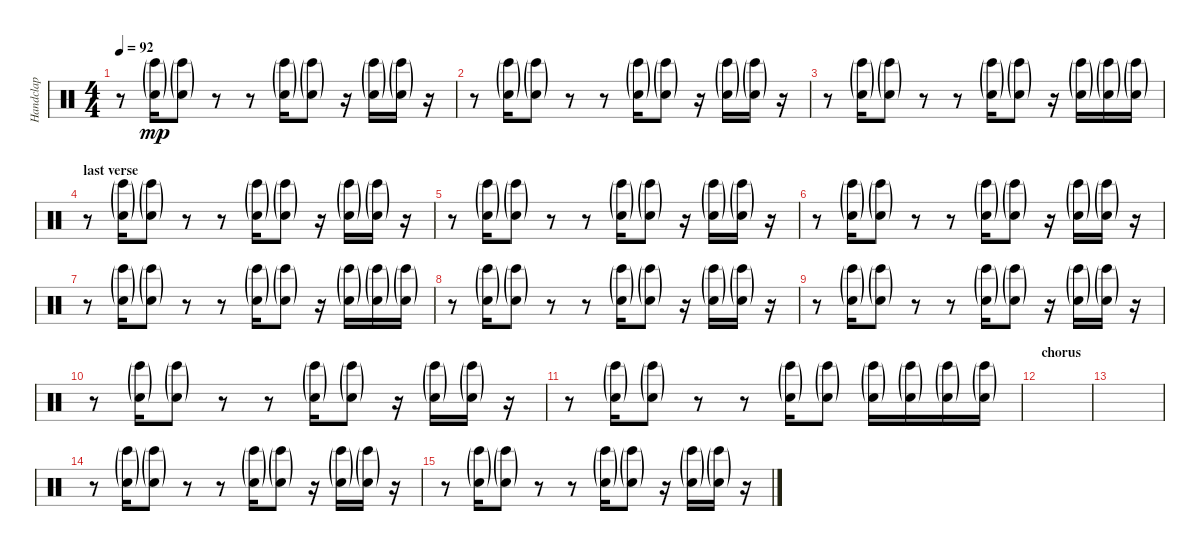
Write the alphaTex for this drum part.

\track ("Handclap" "Handclap") {instrument percussion}
\staff {score}
\articulation defaults
\ts (4 4)
\tempo 92
\clef neutral
\ks c
r.8{dy mp} ("Hand Clap (hit)"{g} "Bongo High (hit)"{g}).16 ("Hand Clap (hit)"{g} "Bongo High (hit)"{g}).8 r.8 r.8 ("Hand Clap (hit)"{g} "Bongo High (hit)"{g}).16 ("Hand Clap (hit)"{g} "Bongo High (hit)"{g}).8 r.16 ("Hand Clap (hit)"{g} "Bongo High (hit)"{g}).16 ("Hand Clap (hit)"{g} "Bongo High (hit)"{g}).16 r.16 |
r.8 ("Hand Clap (hit)"{g} "Bongo High (hit)"{g}).16 ("Hand Clap (hit)"{g} "Bongo High (hit)"{g}).8 r.8 r.8 ("Hand Clap (hit)"{g} "Bongo High (hit)"{g}).16 ("Hand Clap (hit)"{g} "Bongo High (hit)"{g}).8 r.16 ("Hand Clap (hit)"{g} "Bongo High (hit)"{g}).16 ("Hand Clap (hit)"{g} "Bongo High (hit)"{g}).16 r.16 |
r.8 ("Hand Clap (hit)"{g} "Bongo High (hit)"{g}).16 ("Hand Clap (hit)"{g} "Bongo High (hit)"{g}).8 r.8 r.8 ("Hand Clap (hit)"{g} "Bongo High (hit)"{g}).16 ("Hand Clap (hit)"{g} "Bongo High (hit)"{g}).8 r.16 ("Hand Clap (hit)"{g} "Bongo High (hit)"{g}).16 ("Hand Clap (hit)"{g} "Bongo High (hit)"{g}).16 ("Hand Clap (hit)"{g} "Bongo High (hit)"{g}).16 |
\section ("" "last verse")
r.8 ("Hand Clap (hit)"{g} "Bongo High (hit)"{g}).16 ("Hand Clap (hit)"{g} "Bongo High (hit)"{g}).8 r.8 r.8 ("Hand Clap (hit)"{g} "Bongo High (hit)"{g}).16 ("Hand Clap (hit)"{g} "Bongo High (hit)"{g}).8 r.16 ("Hand Clap (hit)"{g} "Bongo High (hit)"{g}).16 ("Hand Clap (hit)"{g} "Bongo High (hit)"{g}).16 r.16 |
r.8 ("Hand Clap (hit)"{g} "Bongo High (hit)"{g}).16 ("Hand Clap (hit)"{g} "Bongo High (hit)"{g}).8 r.8 r.8 ("Hand Clap (hit)"{g} "Bongo High (hit)"{g}).16 ("Hand Clap (hit)"{g} "Bongo High (hit)"{g}).8 r.16 ("Hand Clap (hit)"{g} "Bongo High (hit)"{g}).16 ("Hand Clap (hit)"{g} "Bongo High (hit)"{g}).16 r.16 |
r.8 ("Hand Clap (hit)"{g} "Bongo High (hit)"{g}).16 ("Hand Clap (hit)"{g} "Bongo High (hit)"{g}).8 r.8 r.8 ("Hand Clap (hit)"{g} "Bongo High (hit)"{g}).16 ("Hand Clap (hit)"{g} "Bongo High (hit)"{g}).8 r.16 ("Hand Clap (hit)"{g} "Bongo High (hit)"{g}).16 ("Hand Clap (hit)"{g} "Bongo High (hit)"{g}).16 r.16 |
r.8 ("Hand Clap (hit)"{g} "Bongo High (hit)"{g}).16 ("Hand Clap (hit)"{g} "Bongo High (hit)"{g}).8 r.8 r.8 ("Hand Clap (hit)"{g} "Bongo High (hit)"{g}).16 ("Hand Clap (hit)"{g} "Bongo High (hit)"{g}).8 r.16 ("Hand Clap (hit)"{g} "Bongo High (hit)"{g}).16 ("Hand Clap (hit)"{g} "Bongo High (hit)"{g}).16 ("Hand Clap (hit)"{g} "Bongo High (hit)"{g}).16 |
r.8 ("Hand Clap (hit)"{g} "Bongo High (hit)"{g}).16 ("Hand Clap (hit)"{g} "Bongo High (hit)"{g}).8 r.8 r.8 ("Hand Clap (hit)"{g} "Bongo High (hit)"{g}).16 ("Hand Clap (hit)"{g} "Bongo High (hit)"{g}).8 r.16 ("Hand Clap (hit)"{g} "Bongo High (hit)"{g}).16 ("Hand Clap (hit)"{g} "Bongo High (hit)"{g}).16 r.16 |
r.8 ("Hand Clap (hit)"{g} "Bongo High (hit)"{g}).16 ("Hand Clap (hit)"{g} "Bongo High (hit)"{g}).8 r.8 r.8 ("Hand Clap (hit)"{g} "Bongo High (hit)"{g}).16 ("Hand Clap (hit)"{g} "Bongo High (hit)"{g}).8 r.16 ("Hand Clap (hit)"{g} "Bongo High (hit)"{g}).16 ("Hand Clap (hit)"{g} "Bongo High (hit)"{g}).16 r.16 |
r.8 ("Hand Clap (hit)"{g} "Bongo High (hit)"{g}).16 ("Hand Clap (hit)"{g} "Bongo High (hit)"{g}).8 r.8 r.8 ("Hand Clap (hit)"{g} "Bongo High (hit)"{g}).16 ("Hand Clap (hit)"{g} "Bongo High (hit)"{g}).8 r.16 ("Hand Clap (hit)"{g} "Bongo High (hit)"{g}).16 ("Hand Clap (hit)"{g} "Bongo High (hit)"{g}).16 r.16 |
r.8 ("Hand Clap (hit)"{g} "Bongo High (hit)"{g}).16 ("Hand Clap (hit)"{g} "Bongo High (hit)"{g}).8 r.8 r.8 ("Hand Clap (hit)"{g} "Bongo High (hit)"{g}).16 ("Hand Clap (hit)"{g} "Bongo High (hit)"{g}).8 ("Hand Clap (hit)"{g} "Bongo High (hit)"{g}).16 ("Hand Clap (hit)"{g} "Bongo High (hit)"{g}).16 ("Hand Clap (hit)"{g} "Bongo High (hit)"{g}).16 ("Hand Clap (hit)"{g} "Bongo High (hit)"{g}).16 |
\section ("" "chorus")
|
|
r.8 ("Hand Clap (hit)"{g} "Bongo High (hit)"{g}).16 ("Hand Clap (hit)"{g} "Bongo High (hit)"{g}).8 r.8 r.8 ("Hand Clap (hit)"{g} "Bongo High (hit)"{g}).16 ("Hand Clap (hit)"{g} "Bongo High (hit)"{g}).8 r.16 ("Hand Clap (hit)"{g} "Bongo High (hit)"{g}).16 ("Hand Clap (hit)"{g} "Bongo High (hit)"{g}).16 r.16 |
r.8 ("Hand Clap (hit)"{g} "Bongo High (hit)"{g}).16 ("Hand Clap (hit)"{g} "Bongo High (hit)"{g}).8 r.8 r.8 ("Hand Clap (hit)"{g} "Bongo High (hit)"{g}).16 ("Hand Clap (hit)"{g} "Bongo High (hit)"{g}).8 r.16 ("Hand Clap (hit)"{g} "Bongo High (hit)"{g}).16 ("Hand Clap (hit)"{g} "Bongo High (hit)"{g}).16 r.16
